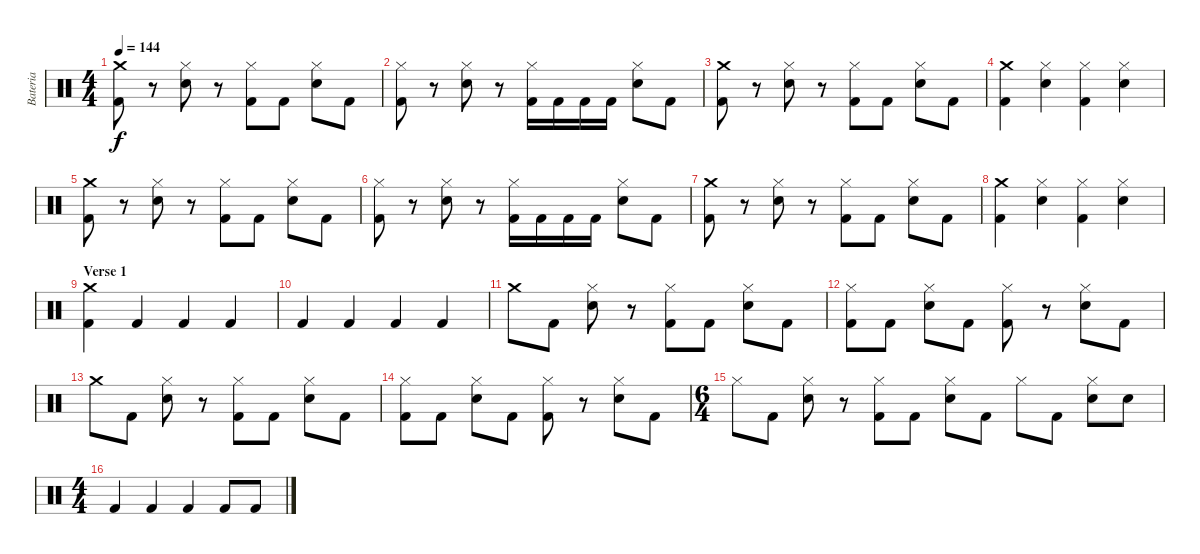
\track ("Bateria" "Bateria") {instrument percussion}
\staff {score}
\articulation defaults
\ts (4 4)
\tempo 144
\clef neutral
\ks c
("Crash medium (hit)" "Kick (hit) 2").8{dy f} r.8 ("Hi-Hat (closed)" "Electric Snare (hit)").8 r.8 ("Hi-Hat (closed)" "Kick (hit) 2").8 "Kick (hit) 2".8 ("Hi-Hat (closed)" "Electric Snare (hit)").8 "Kick (hit) 2".8 |
("Hi-Hat (closed)" "Kick (hit) 2").8 r.8 ("Hi-Hat (closed)" "Electric Snare (hit)").8 r.8 ("Hi-Hat (closed)" "Kick (hit) 2").16 "Kick (hit) 2".16 "Kick (hit) 2".16 "Kick (hit) 2".16 ("Hi-Hat (closed)" "Electric Snare (hit)").8 "Kick (hit) 2".8 |
("Crash medium (hit)" "Kick (hit) 2").8 r.8 ("Hi-Hat (closed)" "Electric Snare (hit)").8 r.8 ("Hi-Hat (closed)" "Kick (hit) 2").8 "Kick (hit) 2".8 ("Hi-Hat (closed)" "Electric Snare (hit)").8 "Kick (hit) 2".8 |
("Crash medium (hit)" "Kick (hit) 2").4 ("Hi-Hat (closed)" "Electric Snare (hit)").4 ("Hi-Hat (closed)" "Kick (hit) 2").4 ("Hi-Hat (closed)" "Electric Snare (hit)").4 |
("Crash medium (hit)" "Kick (hit) 2").8 r.8 ("Hi-Hat (closed)" "Electric Snare (hit)").8 r.8 ("Hi-Hat (closed)" "Kick (hit) 2").8 "Kick (hit) 2".8 ("Hi-Hat (closed)" "Electric Snare (hit)").8 "Kick (hit) 2".8 |
("Hi-Hat (closed)" "Kick (hit) 2").8 r.8 ("Hi-Hat (closed)" "Electric Snare (hit)").8 r.8 ("Hi-Hat (closed)" "Kick (hit) 2").16 "Kick (hit) 2".16 "Kick (hit) 2".16 "Kick (hit) 2".16 ("Hi-Hat (closed)" "Electric Snare (hit)").8 "Kick (hit) 2".8 |
("Crash medium (hit)" "Kick (hit) 2").8 r.8 ("Hi-Hat (closed)" "Electric Snare (hit)").8 r.8 ("Hi-Hat (closed)" "Kick (hit) 2").8 "Kick (hit) 2".8 ("Hi-Hat (closed)" "Electric Snare (hit)").8 "Kick (hit) 2".8 |
("Crash medium (hit)" "Kick (hit) 2").4 ("Hi-Hat (closed)" "Electric Snare (hit)").4 ("Hi-Hat (closed)" "Kick (hit) 2").4 ("Hi-Hat (closed)" "Electric Snare (hit)").4 |
\section ("" "Verse 1")
("Crash medium (hit)" "Kick (hit) 2").4 "Kick (hit) 2".4 "Kick (hit) 2".4 "Kick (hit) 2".4 |
"Kick (hit) 2".4 "Kick (hit) 2".4 "Kick (hit) 2".4 "Kick (hit) 2".4 |
"Crash medium (hit)".8 "Kick (hit) 2".8 ("Hi-Hat (closed)" "Electric Snare (hit)").8 r.8 ("Hi-Hat (closed)" "Kick (hit) 2").8 "Kick (hit) 2".8 ("Hi-Hat (closed)" "Electric Snare (hit)").8 "Kick (hit) 2".8 |
("Hi-Hat (closed)" "Kick (hit) 2").8 "Kick (hit) 2".8 ("Hi-Hat (closed)" "Electric Snare (hit)").8 "Kick (hit) 2".8 ("Hi-Hat (closed)" "Kick (hit) 2").8 r.8 ("Hi-Hat (closed)" "Electric Snare (hit)").8 "Kick (hit) 2".8 |
"Crash medium (hit)".8 "Kick (hit) 2".8 ("Hi-Hat (closed)" "Electric Snare (hit)").8 r.8 ("Hi-Hat (closed)" "Kick (hit) 2").8 "Kick (hit) 2".8 ("Hi-Hat (closed)" "Electric Snare (hit)").8 "Kick (hit) 2".8 |
("Hi-Hat (closed)" "Kick (hit) 2").8 "Kick (hit) 2".8 ("Hi-Hat (closed)" "Electric Snare (hit)").8 "Kick (hit) 2".8 ("Hi-Hat (closed)" "Kick (hit) 2").8 r.8 ("Hi-Hat (closed)" "Electric Snare (hit)").8 "Kick (hit) 2".8 |
\ts (6 4)
"Hi-Hat (closed)".8 "Kick (hit) 2".8 ("Hi-Hat (closed)" "Electric Snare (hit)").8 r.8 ("Hi-Hat (closed)" "Kick (hit) 2").8 "Kick (hit) 2".8 ("Hi-Hat (closed)" "Electric Snare (hit)").8 "Kick (hit) 2".8 "Hi-Hat (closed)".8 "Kick (hit) 2".8 ("Hi-Hat (closed)" "Electric Snare (hit)").8 "Electric Snare (hit)".8 |
\ts (4 4)
"Kick (hit) 2".4 "Kick (hit) 2".4 "Kick (hit) 2".4 "Kick (hit) 2".8 "Kick (hit) 2".8
